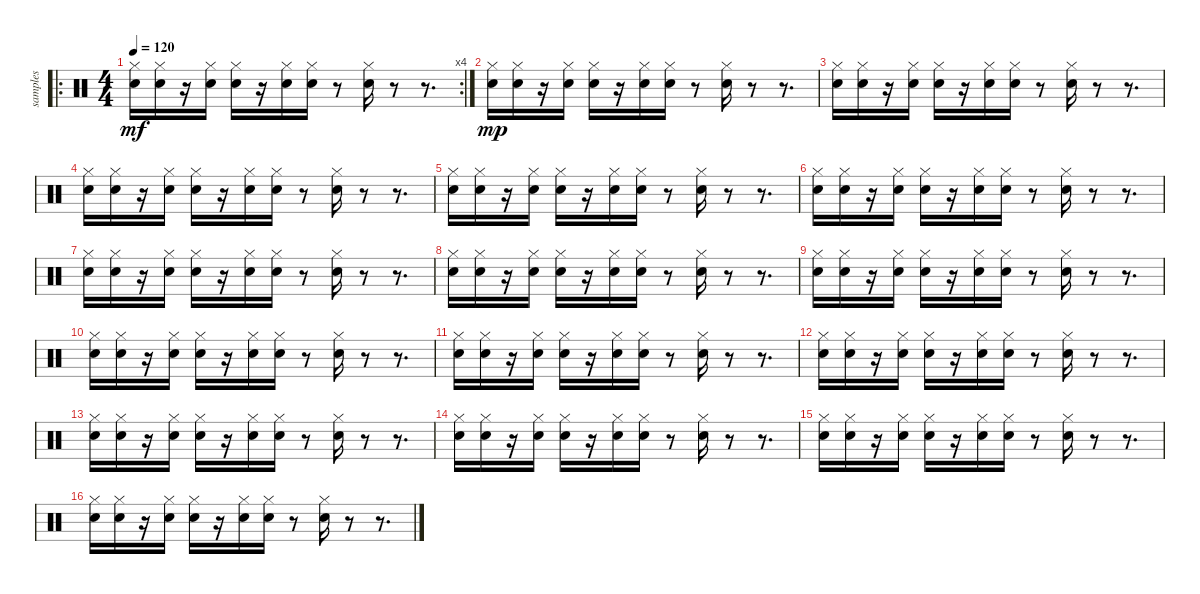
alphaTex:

\track ("samples" "samples") {instrument percussion}
\staff {score}
\articulation defaults
\ro
\rc 4
\ts (4 4)
\tempo 120
\clef neutral
\ks c
("Hi-Hat (closed)" "Snare (hit) 2").16{dy mf} ("Hi-Hat (closed)" "Snare (hit) 2").16 r.16 ("Hi-Hat (closed)" "Snare (hit) 2").16 ("Hi-Hat (closed)" "Snare (hit) 2").16 r.16 ("Hi-Hat (closed)" "Snare (hit) 2").16 ("Hi-Hat (closed)" "Snare (hit) 2").16 r.8 ("Hi-Hat (closed)" "Snare (hit) 2").16 r.8 r.8{d} |
("Hi-Hat (closed)" "Snare (hit) 2").16{dy mp} ("Hi-Hat (closed)" "Snare (hit) 2").16 r.16 ("Hi-Hat (closed)" "Snare (hit) 2").16 ("Hi-Hat (closed)" "Snare (hit) 2").16 r.16 ("Hi-Hat (closed)" "Snare (hit) 2").16 ("Hi-Hat (closed)" "Snare (hit) 2").16 r.8 ("Hi-Hat (closed)" "Snare (hit) 2").16 r.8 r.8{d} |
("Hi-Hat (closed)" "Snare (hit) 2").16 ("Hi-Hat (closed)" "Snare (hit) 2").16 r.16 ("Hi-Hat (closed)" "Snare (hit) 2").16 ("Hi-Hat (closed)" "Snare (hit) 2").16 r.16 ("Hi-Hat (closed)" "Snare (hit) 2").16 ("Hi-Hat (closed)" "Snare (hit) 2").16 r.8 ("Hi-Hat (closed)" "Snare (hit) 2").16 r.8 r.8{d} |
("Hi-Hat (closed)" "Snare (hit) 2").16 ("Hi-Hat (closed)" "Snare (hit) 2").16 r.16 ("Hi-Hat (closed)" "Snare (hit) 2").16 ("Hi-Hat (closed)" "Snare (hit) 2").16 r.16 ("Hi-Hat (closed)" "Snare (hit) 2").16 ("Hi-Hat (closed)" "Snare (hit) 2").16 r.8 ("Hi-Hat (closed)" "Snare (hit) 2").16 r.8 r.8{d} |
("Hi-Hat (closed)" "Snare (hit) 2").16 ("Hi-Hat (closed)" "Snare (hit) 2").16 r.16 ("Hi-Hat (closed)" "Snare (hit) 2").16 ("Hi-Hat (closed)" "Snare (hit) 2").16 r.16 ("Hi-Hat (closed)" "Snare (hit) 2").16 ("Hi-Hat (closed)" "Snare (hit) 2").16 r.8 ("Hi-Hat (closed)" "Snare (hit) 2").16 r.8 r.8{d} |
("Hi-Hat (closed)" "Snare (hit) 2").16 ("Hi-Hat (closed)" "Snare (hit) 2").16 r.16 ("Hi-Hat (closed)" "Snare (hit) 2").16 ("Hi-Hat (closed)" "Snare (hit) 2").16 r.16 ("Hi-Hat (closed)" "Snare (hit) 2").16 ("Hi-Hat (closed)" "Snare (hit) 2").16 r.8 ("Hi-Hat (closed)" "Snare (hit) 2").16 r.8 r.8{d} |
("Hi-Hat (closed)" "Snare (hit) 2").16 ("Hi-Hat (closed)" "Snare (hit) 2").16 r.16 ("Hi-Hat (closed)" "Snare (hit) 2").16 ("Hi-Hat (closed)" "Snare (hit) 2").16 r.16 ("Hi-Hat (closed)" "Snare (hit) 2").16 ("Hi-Hat (closed)" "Snare (hit) 2").16 r.8 ("Hi-Hat (closed)" "Snare (hit) 2").16 r.8 r.8{d} |
("Hi-Hat (closed)" "Snare (hit) 2").16 ("Hi-Hat (closed)" "Snare (hit) 2").16 r.16 ("Hi-Hat (closed)" "Snare (hit) 2").16 ("Hi-Hat (closed)" "Snare (hit) 2").16 r.16 ("Hi-Hat (closed)" "Snare (hit) 2").16 ("Hi-Hat (closed)" "Snare (hit) 2").16 r.8 ("Hi-Hat (closed)" "Snare (hit) 2").16 r.8 r.8{d} |
("Hi-Hat (closed)" "Snare (hit) 2").16 ("Hi-Hat (closed)" "Snare (hit) 2").16 r.16 ("Hi-Hat (closed)" "Snare (hit) 2").16 ("Hi-Hat (closed)" "Snare (hit) 2").16 r.16 ("Hi-Hat (closed)" "Snare (hit) 2").16 ("Hi-Hat (closed)" "Snare (hit) 2").16 r.8 ("Hi-Hat (closed)" "Snare (hit) 2").16 r.8 r.8{d} |
("Hi-Hat (closed)" "Snare (hit) 2").16 ("Hi-Hat (closed)" "Snare (hit) 2").16 r.16 ("Hi-Hat (closed)" "Snare (hit) 2").16 ("Hi-Hat (closed)" "Snare (hit) 2").16 r.16 ("Hi-Hat (closed)" "Snare (hit) 2").16 ("Hi-Hat (closed)" "Snare (hit) 2").16 r.8 ("Hi-Hat (closed)" "Snare (hit) 2").16 r.8 r.8{d} |
("Hi-Hat (closed)" "Snare (hit) 2").16 ("Hi-Hat (closed)" "Snare (hit) 2").16 r.16 ("Hi-Hat (closed)" "Snare (hit) 2").16 ("Hi-Hat (closed)" "Snare (hit) 2").16 r.16 ("Hi-Hat (closed)" "Snare (hit) 2").16 ("Hi-Hat (closed)" "Snare (hit) 2").16 r.8 ("Hi-Hat (closed)" "Snare (hit) 2").16 r.8 r.8{d} |
("Hi-Hat (closed)" "Snare (hit) 2").16 ("Hi-Hat (closed)" "Snare (hit) 2").16 r.16 ("Hi-Hat (closed)" "Snare (hit) 2").16 ("Hi-Hat (closed)" "Snare (hit) 2").16 r.16 ("Hi-Hat (closed)" "Snare (hit) 2").16 ("Hi-Hat (closed)" "Snare (hit) 2").16 r.8 ("Hi-Hat (closed)" "Snare (hit) 2").16 r.8 r.8{d} |
("Hi-Hat (closed)" "Snare (hit) 2").16 ("Hi-Hat (closed)" "Snare (hit) 2").16 r.16 ("Hi-Hat (closed)" "Snare (hit) 2").16 ("Hi-Hat (closed)" "Snare (hit) 2").16 r.16 ("Hi-Hat (closed)" "Snare (hit) 2").16 ("Hi-Hat (closed)" "Snare (hit) 2").16 r.8 ("Hi-Hat (closed)" "Snare (hit) 2").16 r.8 r.8{d} |
("Hi-Hat (closed)" "Snare (hit) 2").16{volume 11} ("Hi-Hat (closed)" "Snare (hit) 2").16 r.16 ("Hi-Hat (closed)" "Snare (hit) 2").16 ("Hi-Hat (closed)" "Snare (hit) 2").16 r.16 ("Hi-Hat (closed)" "Snare (hit) 2").16 ("Hi-Hat (closed)" "Snare (hit) 2").16 r.8 ("Hi-Hat (closed)" "Snare (hit) 2").16 r.8 r.8{d} |
("Hi-Hat (closed)" "Snare (hit) 2").16 ("Hi-Hat (closed)" "Snare (hit) 2").16 r.16 ("Hi-Hat (closed)" "Snare (hit) 2").16 ("Hi-Hat (closed)" "Snare (hit) 2").16 r.16 ("Hi-Hat (closed)" "Snare (hit) 2").16 ("Hi-Hat (closed)" "Snare (hit) 2").16 r.8 ("Hi-Hat (closed)" "Snare (hit) 2").16 r.8 r.8{d} |
("Hi-Hat (closed)" "Snare (hit) 2").16 ("Hi-Hat (closed)" "Snare (hit) 2").16 r.16 ("Hi-Hat (closed)" "Snare (hit) 2").16 ("Hi-Hat (closed)" "Snare (hit) 2").16 r.16 ("Hi-Hat (closed)" "Snare (hit) 2").16 ("Hi-Hat (closed)" "Snare (hit) 2").16 r.8 ("Hi-Hat (closed)" "Snare (hit) 2").16 r.8 r.8{d}
